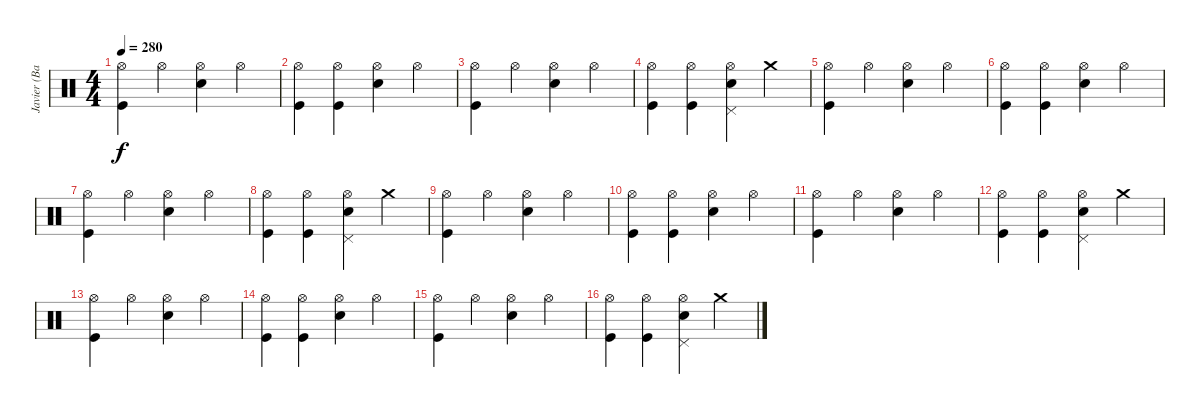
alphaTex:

\track ("Javier (Bateria)" "Javier (Ba") {instrument percussion}
\staff {score}
\articulation defaults
\ts (4 4)
\tempo 280
\clef neutral
\ks c
("Hi-Hat (open)" "Kick (hit)").4{dy f} "Hi-Hat (open)".4 ("Hi-Hat (open)" "Snare (hit) 2").4 "Hi-Hat (open)".4 |
("Hi-Hat (open)" "Kick (hit)").4 ("Hi-Hat (open)" "Kick (hit)").4 ("Hi-Hat (open)" "Snare (hit) 2").4 "Hi-Hat (open)".4 |
("Hi-Hat (open)" "Kick (hit)").4 "Hi-Hat (open)".4 ("Hi-Hat (open)" "Snare (hit) 2").4 "Hi-Hat (open)".4 |
("Hi-Hat (open)" "Kick (hit)").4 ("Hi-Hat (open)" "Kick (hit)").4 ("Hi-Hat (open)" "Pedal Hi-Hat (hit)" "Snare (hit) 2").4 "Crash medium (hit)".4 |
("Hi-Hat (open)" "Kick (hit)").4 "Hi-Hat (open)".4 ("Hi-Hat (open)" "Snare (hit) 2").4 "Hi-Hat (open)".4 |
("Hi-Hat (open)" "Kick (hit)").4 ("Hi-Hat (open)" "Kick (hit)").4 ("Hi-Hat (open)" "Snare (hit) 2").4 "Hi-Hat (open)".4 |
("Hi-Hat (open)" "Kick (hit)").4 "Hi-Hat (open)".4 ("Hi-Hat (open)" "Snare (hit) 2").4 "Hi-Hat (open)".4 |
("Hi-Hat (open)" "Kick (hit)").4 ("Hi-Hat (open)" "Kick (hit)").4 ("Hi-Hat (open)" "Pedal Hi-Hat (hit)" "Snare (hit) 2").4 "Crash medium (hit)".4 |
("Hi-Hat (open)" "Kick (hit)").4 "Hi-Hat (open)".4 ("Hi-Hat (open)" "Snare (hit) 2").4 "Hi-Hat (open)".4 |
("Hi-Hat (open)" "Kick (hit)").4 ("Hi-Hat (open)" "Kick (hit)").4 ("Hi-Hat (open)" "Snare (hit) 2").4 "Hi-Hat (open)".4 |
("Hi-Hat (open)" "Kick (hit)").4 "Hi-Hat (open)".4 ("Hi-Hat (open)" "Snare (hit) 2").4 "Hi-Hat (open)".4 |
("Hi-Hat (open)" "Kick (hit)").4 ("Hi-Hat (open)" "Kick (hit)").4 ("Hi-Hat (open)" "Pedal Hi-Hat (hit)" "Snare (hit) 2").4 "Crash medium (hit)".4 |
("Hi-Hat (open)" "Kick (hit)").4 "Hi-Hat (open)".4 ("Hi-Hat (open)" "Snare (hit) 2").4 "Hi-Hat (open)".4 |
("Hi-Hat (open)" "Kick (hit)").4 ("Hi-Hat (open)" "Kick (hit)").4 ("Hi-Hat (open)" "Snare (hit) 2").4 "Hi-Hat (open)".4 |
("Hi-Hat (open)" "Kick (hit)").4 "Hi-Hat (open)".4 ("Hi-Hat (open)" "Snare (hit) 2").4 "Hi-Hat (open)".4 |
("Hi-Hat (open)" "Kick (hit)").4 ("Hi-Hat (open)" "Kick (hit)").4 ("Hi-Hat (open)" "Pedal Hi-Hat (hit)" "Snare (hit) 2").4 "Crash medium (hit)".4
